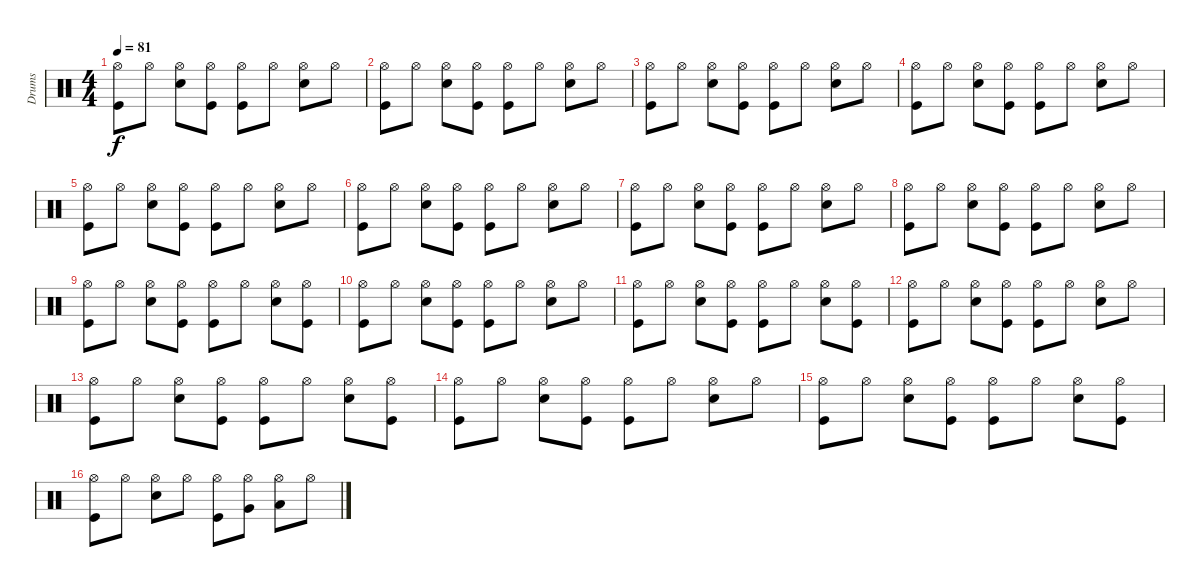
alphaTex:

\track ("Drums" "Drums") {instrument percussion}
\staff {score}
\articulation defaults
\ts (4 4)
\tempo 81
\clef neutral
\ks c
("Hi-Hat (open)" "Kick (hit)").8{dy f} "Hi-Hat (open)".8 ("Hi-Hat (open)" "Electric Snare (hit)").8 ("Hi-Hat (open)" "Kick (hit)").8 ("Hi-Hat (open)" "Kick (hit)").8 "Hi-Hat (open)".8 ("Hi-Hat (open)" "Electric Snare (hit)").8 "Hi-Hat (open)".8 |
("Hi-Hat (open)" "Kick (hit)").8 "Hi-Hat (open)".8 ("Hi-Hat (open)" "Electric Snare (hit)").8 ("Hi-Hat (open)" "Kick (hit)").8 ("Hi-Hat (open)" "Kick (hit)").8 "Hi-Hat (open)".8 ("Hi-Hat (open)" "Electric Snare (hit)").8 "Hi-Hat (open)".8 |
("Hi-Hat (open)" "Kick (hit)").8 "Hi-Hat (open)".8 ("Hi-Hat (open)" "Electric Snare (hit)").8 ("Hi-Hat (open)" "Kick (hit)").8 ("Hi-Hat (open)" "Kick (hit)").8 "Hi-Hat (open)".8 ("Hi-Hat (open)" "Electric Snare (hit)").8 "Hi-Hat (open)".8 |
("Hi-Hat (open)" "Kick (hit)").8 "Hi-Hat (open)".8 ("Hi-Hat (open)" "Electric Snare (hit)").8 ("Hi-Hat (open)" "Kick (hit)").8 ("Hi-Hat (open)" "Kick (hit)").8 "Hi-Hat (open)".8 ("Hi-Hat (open)" "Electric Snare (hit)").8 "Hi-Hat (open)".8 |
("Hi-Hat (open)" "Kick (hit)").8 "Hi-Hat (open)".8 ("Hi-Hat (open)" "Electric Snare (hit)").8 ("Hi-Hat (open)" "Kick (hit)").8 ("Hi-Hat (open)" "Kick (hit)").8 "Hi-Hat (open)".8 ("Hi-Hat (open)" "Electric Snare (hit)").8 "Hi-Hat (open)".8 |
("Hi-Hat (open)" "Kick (hit)").8 "Hi-Hat (open)".8 ("Hi-Hat (open)" "Electric Snare (hit)").8 ("Hi-Hat (open)" "Kick (hit)").8 ("Hi-Hat (open)" "Kick (hit)").8 "Hi-Hat (open)".8 ("Hi-Hat (open)" "Electric Snare (hit)").8 "Hi-Hat (open)".8 |
("Hi-Hat (open)" "Kick (hit)").8 "Hi-Hat (open)".8 ("Hi-Hat (open)" "Electric Snare (hit)").8 ("Hi-Hat (open)" "Kick (hit)").8 ("Hi-Hat (open)" "Kick (hit)").8 "Hi-Hat (open)".8 ("Hi-Hat (open)" "Electric Snare (hit)").8 "Hi-Hat (open)".8 |
("Hi-Hat (open)" "Kick (hit)").8 "Hi-Hat (open)".8 ("Hi-Hat (open)" "Electric Snare (hit)").8 ("Hi-Hat (open)" "Kick (hit)").8 ("Hi-Hat (open)" "Kick (hit)").8 "Hi-Hat (open)".8 ("Hi-Hat (open)" "Electric Snare (hit)").8 "Hi-Hat (open)".8 |
("Hi-Hat (open)" "Kick (hit)").8 "Hi-Hat (open)".8 ("Hi-Hat (open)" "Electric Snare (hit)").8 ("Hi-Hat (open)" "Kick (hit)").8 ("Hi-Hat (open)" "Kick (hit)").8 "Hi-Hat (open)".8 ("Hi-Hat (open)" "Electric Snare (hit)").8 ("Hi-Hat (open)" "Kick (hit)").8 |
("Hi-Hat (open)" "Kick (hit)").8 "Hi-Hat (open)".8 ("Hi-Hat (open)" "Electric Snare (hit)").8 ("Hi-Hat (open)" "Kick (hit)").8 ("Hi-Hat (open)" "Kick (hit)").8 "Hi-Hat (open)".8 ("Hi-Hat (open)" "Electric Snare (hit)").8 "Hi-Hat (open)".8 |
("Hi-Hat (open)" "Kick (hit)").8 "Hi-Hat (open)".8 ("Hi-Hat (open)" "Electric Snare (hit)").8 ("Hi-Hat (open)" "Kick (hit)").8 ("Hi-Hat (open)" "Kick (hit)").8 "Hi-Hat (open)".8 ("Hi-Hat (open)" "Electric Snare (hit)").8 ("Hi-Hat (open)" "Kick (hit)").8 |
("Hi-Hat (open)" "Kick (hit)").8 "Hi-Hat (open)".8 ("Hi-Hat (open)" "Electric Snare (hit)").8 ("Hi-Hat (open)" "Kick (hit)").8 ("Hi-Hat (open)" "Kick (hit)").8 "Hi-Hat (open)".8 ("Hi-Hat (open)" "Electric Snare (hit)").8 "Hi-Hat (open)".8 |
("Hi-Hat (open)" "Kick (hit)").8 "Hi-Hat (open)".8 ("Hi-Hat (open)" "Electric Snare (hit)").8 ("Hi-Hat (open)" "Kick (hit)").8 ("Hi-Hat (open)" "Kick (hit)").8 "Hi-Hat (open)".8 ("Hi-Hat (open)" "Electric Snare (hit)").8 ("Hi-Hat (open)" "Kick (hit)").8 |
("Hi-Hat (open)" "Kick (hit)").8 "Hi-Hat (open)".8 ("Hi-Hat (open)" "Electric Snare (hit)").8 ("Hi-Hat (open)" "Kick (hit)").8 ("Hi-Hat (open)" "Kick (hit)").8 "Hi-Hat (open)".8 ("Hi-Hat (open)" "Electric Snare (hit)").8 "Hi-Hat (open)".8 |
("Hi-Hat (open)" "Kick (hit)").8 "Hi-Hat (open)".8 ("Hi-Hat (open)" "Electric Snare (hit)").8 ("Hi-Hat (open)" "Kick (hit)").8 ("Hi-Hat (open)" "Kick (hit)").8 "Hi-Hat (open)".8 ("Hi-Hat (open)" "Electric Snare (hit)").8 ("Hi-Hat (open)" "Kick (hit)").8 |
("Hi-Hat (open)" "Kick (hit)").8 "Hi-Hat (open)".8 ("Hi-Hat (open)" "Electric Snare (hit)").8 "Hi-Hat (open)".8 ("Hi-Hat (open)" "Kick (hit)").8 ("Hi-Hat (open)" "Very Low Tom (hit)").8 ("Hi-Hat (open)" "Low Tom (hit)").8 "Hi-Hat (open)".8
